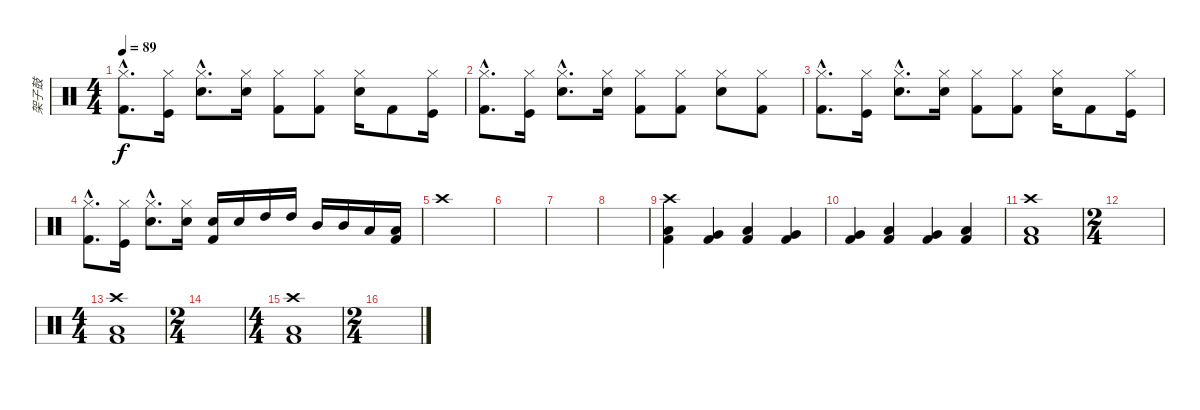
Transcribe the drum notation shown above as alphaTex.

\track ("架子鼓" "架子鼓") {instrument percussion}
\staff {score}
\articulation defaults
\ts (4 4)
\tempo 89
\clef neutral
\ks c
("Kick (hit) 2"{hac} "Hi-Hat (closed)"{hac}).8{d dy f} ("Kick (hit)" "Hi-Hat (closed)").16 ("Snare (hit) 2"{hac} "Hi-Hat (closed)"{hac}).8{d} ("Snare (hit) 2" "Hi-Hat (closed)").16 ("Kick (hit) 2" "Hi-Hat (closed)").8 ("Kick (hit) 2" "Hi-Hat (closed)").8 ("Snare (hit) 2" "Hi-Hat (closed)").16 "Kick (hit) 2".8 ("Kick (hit)" "Hi-Hat (closed)").16 |
("Kick (hit) 2"{hac} "Hi-Hat (closed)"{hac}).8{d} ("Kick (hit)" "Hi-Hat (closed)").16 ("Snare (hit) 2"{hac} "Hi-Hat (closed)"{hac}).8{d} ("Snare (hit) 2" "Hi-Hat (closed)").16 ("Kick (hit) 2" "Hi-Hat (closed)").8 ("Kick (hit) 2" "Hi-Hat (closed)").8 ("Snare (hit) 2" "Hi-Hat (closed)").8 ("Kick (hit) 2" "Hi-Hat (closed)").8 |
("Kick (hit) 2"{hac} "Hi-Hat (closed)"{hac}).8{d} ("Kick (hit)" "Hi-Hat (closed)").16 ("Snare (hit) 2"{hac} "Hi-Hat (closed)"{hac}).8{d} ("Snare (hit) 2" "Hi-Hat (closed)").16 ("Kick (hit) 2" "Hi-Hat (closed)").8 ("Kick (hit) 2" "Hi-Hat (closed)").8 ("Snare (hit) 2" "Hi-Hat (closed)").16 "Kick (hit) 2".8 ("Kick (hit)" "Hi-Hat (closed)").16 |
("Kick (hit) 2"{hac} "Hi-Hat (closed)"{hac}).8{d} ("Kick (hit)" "Hi-Hat (closed)").16 ("Snare (hit) 2"{hac} "Hi-Hat (closed)"{hac}).8{d} ("Snare (hit) 2" "Hi-Hat (closed)").16 ("Snare (hit) 2" "Kick (hit) 2").16 "Snare (hit) 2".16 "High Tom (hit)".16 "High Tom (hit)".16 "Mid Tom (hit)".16 "Mid Tom (hit)".16 "Low Tom (hit)".16 ("Low Tom (hit)" "Kick (hit) 2").16 |
"Crash high (hit)".1 |
|
|
|
("Low Tom (hit)" "Kick (hit) 2" "Crash high (hit)").4 ("Very Low Tom (hit)" "Kick (hit) 2").4 ("Low Tom (hit)" "Kick (hit) 2").4 ("Very Low Tom (hit)" "Kick (hit) 2").4 |
("Very Low Tom (hit)" "Kick (hit) 2").4 ("Low Floor Tom (hit)" "Kick (hit) 2").4 ("Very Low Tom (hit)" "Kick (hit) 2").4 ("Low Floor Tom (hit)" "Kick (hit) 2").4 |
("Low Tom (hit)" "Kick (hit) 2" "Crash high (hit)").1 |
\ts (2 4)
|
\ts (4 4)
("Low Tom (hit)" "Kick (hit) 2" "Crash high (hit)").1 |
\ts (2 4)
|
\ts (4 4)
("Low Tom (hit)" "Kick (hit) 2" "Crash high (hit)").1 |
\ts (2 4)
